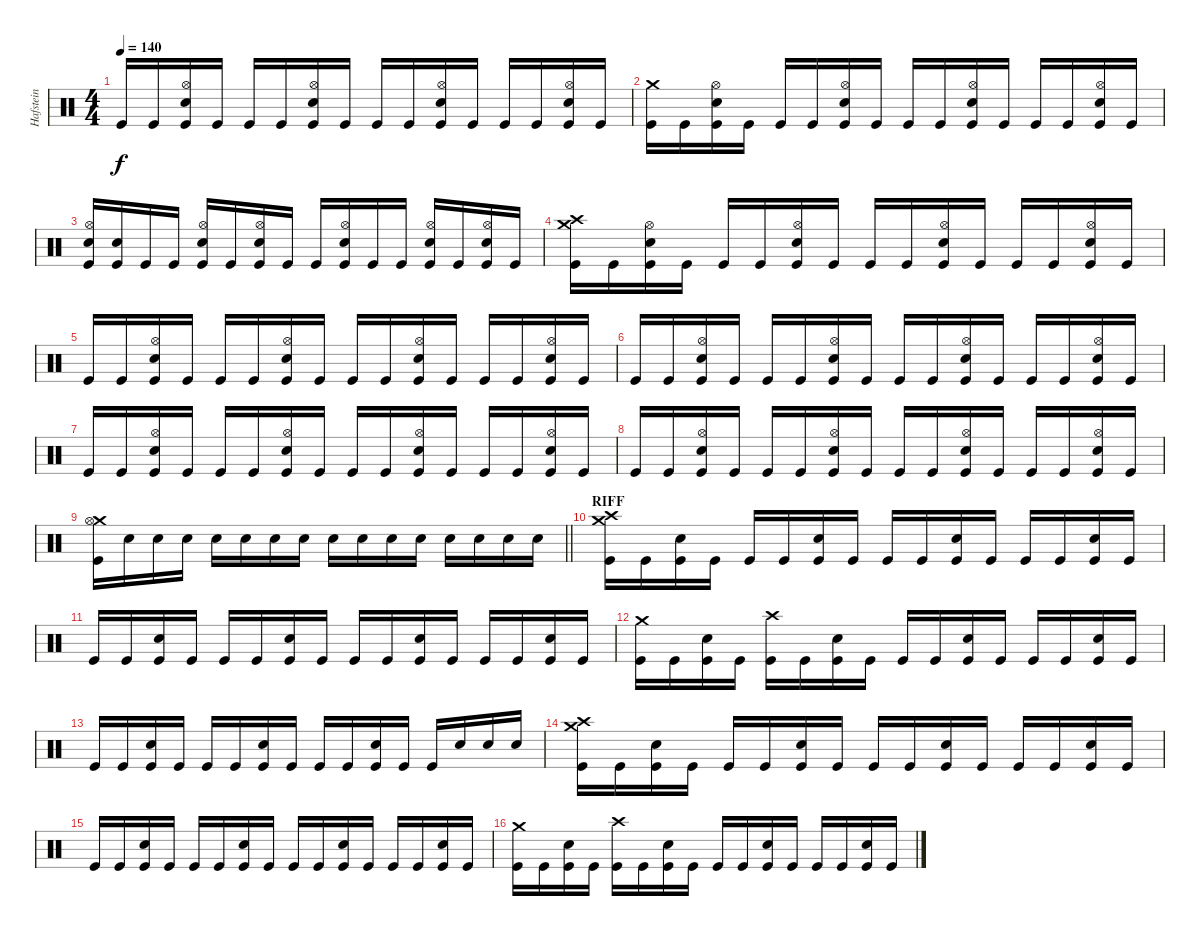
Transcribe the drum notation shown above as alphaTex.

\track ("Hafstein" "Hafstein") {instrument percussion}
\staff {score}
\articulation defaults
\ts (4 4)
\tempo 140
\clef neutral
\ks c "Kick (hit)".16{dy f} "Kick (hit)".16
("Hi-Hat (open)" "Electric Snare (hit)" "Kick (hit)").16 "Kick (hit)".16 "Kick (hit)".16 "Kick (hit)".16 ("Hi-Hat (open)" "Electric Snare (hit)" "Kick (hit)").16 "Kick (hit)".16 "Kick (hit)".16 "Kick (hit)".16 ("Hi-Hat (open)" "Electric Snare (hit)" "Kick (hit)").16 "Kick (hit)".16 "Kick (hit)".16 "Kick (hit)".16 ("Hi-Hat (open)" "Electric Snare (hit)" "Kick (hit)").16 "Kick (hit)".16 |
("Crash medium (hit)" "Kick (hit)").16 "Kick (hit)".16 ("Hi-Hat (open)" "Electric Snare (hit)" "Kick (hit)").16 "Kick (hit)".16 "Kick (hit)".16 "Kick (hit)".16 ("Hi-Hat (open)" "Electric Snare (hit)" "Kick (hit)").16 "Kick (hit)".16 "Kick (hit)".16 "Kick (hit)".16 ("Hi-Hat (open)" "Electric Snare (hit)" "Kick (hit)").16 "Kick (hit)".16 "Kick (hit)".16 "Kick (hit)".16 ("Hi-Hat (open)" "Electric Snare (hit)" "Kick (hit)").16 "Kick (hit)".16 |
("Hi-Hat (open)" "Electric Snare (hit)" "Kick (hit)").16 ("Electric Snare (hit)" "Kick (hit)").16 "Kick (hit)".16 "Kick (hit)".16 ("Hi-Hat (open)" "Electric Snare (hit)" "Kick (hit)").16 "Kick (hit)".16 ("Hi-Hat (open)" "Electric Snare (hit)" "Kick (hit)").16 "Kick (hit)".16 "Kick (hit)".16 ("Hi-Hat (open)" "Electric Snare (hit)" "Kick (hit)").16 "Kick (hit)".16 "Kick (hit)".16 ("Hi-Hat (open)" "Electric Snare (hit)" "Kick (hit)").16 "Kick (hit)".16 ("Hi-Hat (open)" "Electric Snare (hit)" "Kick (hit)").16 "Kick (hit)".16 |
("Crash medium (hit)" "Crash high (hit)" "Kick (hit)").16 "Kick (hit)".16 ("Hi-Hat (open)" "Electric Snare (hit)" "Kick (hit)").16 "Kick (hit)".16 "Kick (hit)".16 "Kick (hit)".16 ("Hi-Hat (open)" "Electric Snare (hit)" "Kick (hit)").16 "Kick (hit)".16 "Kick (hit)".16 "Kick (hit)".16 ("Hi-Hat (open)" "Electric Snare (hit)" "Kick (hit)").16 "Kick (hit)".16 "Kick (hit)".16 "Kick (hit)".16 ("Hi-Hat (open)" "Electric Snare (hit)" "Kick (hit)").16 "Kick (hit)".16 |
"Kick (hit)".16 "Kick (hit)".16 ("Hi-Hat (open)" "Electric Snare (hit)" "Kick (hit)").16 "Kick (hit)".16 "Kick (hit)".16 "Kick (hit)".16 ("Hi-Hat (open)" "Electric Snare (hit)" "Kick (hit)").16 "Kick (hit)".16 "Kick (hit)".16 "Kick (hit)".16 ("Hi-Hat (open)" "Electric Snare (hit)" "Kick (hit)").16 "Kick (hit)".16 "Kick (hit)".16 "Kick (hit)".16 ("Hi-Hat (open)" "Electric Snare (hit)" "Kick (hit)").16 "Kick (hit)".16 |
"Kick (hit)".16 "Kick (hit)".16 ("Hi-Hat (open)" "Electric Snare (hit)" "Kick (hit)").16 "Kick (hit)".16 "Kick (hit)".16 "Kick (hit)".16 ("Hi-Hat (open)" "Electric Snare (hit)" "Kick (hit)").16 "Kick (hit)".16 "Kick (hit)".16 "Kick (hit)".16 ("Hi-Hat (open)" "Electric Snare (hit)" "Kick (hit)").16 "Kick (hit)".16 "Kick (hit)".16 "Kick (hit)".16 ("Hi-Hat (open)" "Electric Snare (hit)" "Kick (hit)").16 "Kick (hit)".16 |
"Kick (hit)".16 "Kick (hit)".16 ("Hi-Hat (open)" "Electric Snare (hit)" "Kick (hit)").16 "Kick (hit)".16 "Kick (hit)".16 "Kick (hit)".16 ("Hi-Hat (open)" "Electric Snare (hit)" "Kick (hit)").16 "Kick (hit)".16 "Kick (hit)".16 "Kick (hit)".16 ("Hi-Hat (open)" "Electric Snare (hit)" "Kick (hit)").16 "Kick (hit)".16 "Kick (hit)".16 "Kick (hit)".16 ("Hi-Hat (open)" "Electric Snare (hit)" "Kick (hit)").16 "Kick (hit)".16 |
"Kick (hit)".16 "Kick (hit)".16 ("Hi-Hat (open)" "Electric Snare (hit)" "Kick (hit)").16 "Kick (hit)".16 "Kick (hit)".16 "Kick (hit)".16 ("Hi-Hat (open)" "Electric Snare (hit)" "Kick (hit)").16 "Kick (hit)".16 "Kick (hit)".16 "Kick (hit)".16 ("Hi-Hat (open)" "Electric Snare (hit)" "Kick (hit)").16 "Kick (hit)".16 "Kick (hit)".16 "Kick (hit)".16 ("Hi-Hat (open)" "Electric Snare (hit)" "Kick (hit)").16 "Kick (hit)".16 |
\barLineRight lightlight
("Crash medium (hit)" "Hi-Hat (open)" "Kick (hit)").16 "Electric Snare (hit)".16 "Electric Snare (hit)".16 "Electric Snare (hit)".16 "Electric Snare (hit)".16 "Electric Snare (hit)".16 "Electric Snare (hit)".16 "Electric Snare (hit)".16 "Electric Snare (hit)".16 "Electric Snare (hit)".16 "Electric Snare (hit)".16 "Electric Snare (hit)".16 "Electric Snare (hit)".16 "Electric Snare (hit)".16 "Electric Snare (hit)".16 "Electric Snare (hit)".16 |
\section ("" "RIFF")
("Crash medium (hit)" "Crash high (hit)" "Kick (hit)").16 "Kick (hit)".16 ("Electric Snare (hit)" "Kick (hit)").16 "Kick (hit)".16 "Kick (hit)".16 "Kick (hit)".16 ("Electric Snare (hit)" "Kick (hit)").16 "Kick (hit)".16 "Kick (hit)".16 "Kick (hit)".16 ("Electric Snare (hit)" "Kick (hit)").16 "Kick (hit)".16 "Kick (hit)".16 "Kick (hit)".16 ("Electric Snare (hit)" "Kick (hit)").16 "Kick (hit)".16 |
"Kick (hit)".16 "Kick (hit)".16 ("Electric Snare (hit)" "Kick (hit)").16 "Kick (hit)".16 "Kick (hit)".16 "Kick (hit)".16 ("Electric Snare (hit)" "Kick (hit)").16 "Kick (hit)".16 "Kick (hit)".16 "Kick (hit)".16 ("Electric Snare (hit)" "Kick (hit)").16 "Kick (hit)".16 "Kick (hit)".16 "Kick (hit)".16 ("Electric Snare (hit)" "Kick (hit)").16 "Kick (hit)".16 |
("Crash medium (hit)" "Kick (hit)").16 "Kick (hit)".16 ("Electric Snare (hit)" "Kick (hit)").16 "Kick (hit)".16 ("Crash high (hit)" "Kick (hit)").16 "Kick (hit)".16 ("Electric Snare (hit)" "Kick (hit)").16 "Kick (hit)".16 "Kick (hit)".16 "Kick (hit)".16 ("Electric Snare (hit)" "Kick (hit)").16 "Kick (hit)".16 "Kick (hit)".16 "Kick (hit)".16 ("Electric Snare (hit)" "Kick (hit)").16 "Kick (hit)".16 |
"Kick (hit)".16 "Kick (hit)".16 ("Electric Snare (hit)" "Kick (hit)").16 "Kick (hit)".16 "Kick (hit)".16 "Kick (hit)".16 ("Electric Snare (hit)" "Kick (hit)").16 "Kick (hit)".16 "Kick (hit)".16 "Kick (hit)".16 ("Electric Snare (hit)" "Kick (hit)").16 "Kick (hit)".16 "Kick (hit)".16 "Electric Snare (hit)".16 "Electric Snare (hit)".16 "Electric Snare (hit)".16 |
("Crash medium (hit)" "Crash high (hit)" "Kick (hit)").16 "Kick (hit)".16 ("Electric Snare (hit)" "Kick (hit)").16 "Kick (hit)".16 "Kick (hit)".16 "Kick (hit)".16 ("Electric Snare (hit)" "Kick (hit)").16 "Kick (hit)".16 "Kick (hit)".16 "Kick (hit)".16 ("Electric Snare (hit)" "Kick (hit)").16 "Kick (hit)".16 "Kick (hit)".16 "Kick (hit)".16 ("Electric Snare (hit)" "Kick (hit)").16 "Kick (hit)".16 |
"Kick (hit)".16 "Kick (hit)".16 ("Electric Snare (hit)" "Kick (hit)").16 "Kick (hit)".16 "Kick (hit)".16 "Kick (hit)".16 ("Electric Snare (hit)" "Kick (hit)").16 "Kick (hit)".16 "Kick (hit)".16 "Kick (hit)".16 ("Electric Snare (hit)" "Kick (hit)").16 "Kick (hit)".16 "Kick (hit)".16 "Kick (hit)".16 ("Electric Snare (hit)" "Kick (hit)").16 "Kick (hit)".16 |
("Crash medium (hit)" "Kick (hit)").16 "Kick (hit)".16 ("Electric Snare (hit)" "Kick (hit)").16 "Kick (hit)".16 ("Crash high (hit)" "Kick (hit)").16 "Kick (hit)".16 ("Electric Snare (hit)" "Kick (hit)").16 "Kick (hit)".16 "Kick (hit)".16 "Kick (hit)".16 ("Electric Snare (hit)" "Kick (hit)").16 "Kick (hit)".16 "Kick (hit)".16 "Kick (hit)".16 ("Electric Snare (hit)" "Kick (hit)").16 "Kick (hit)".16
